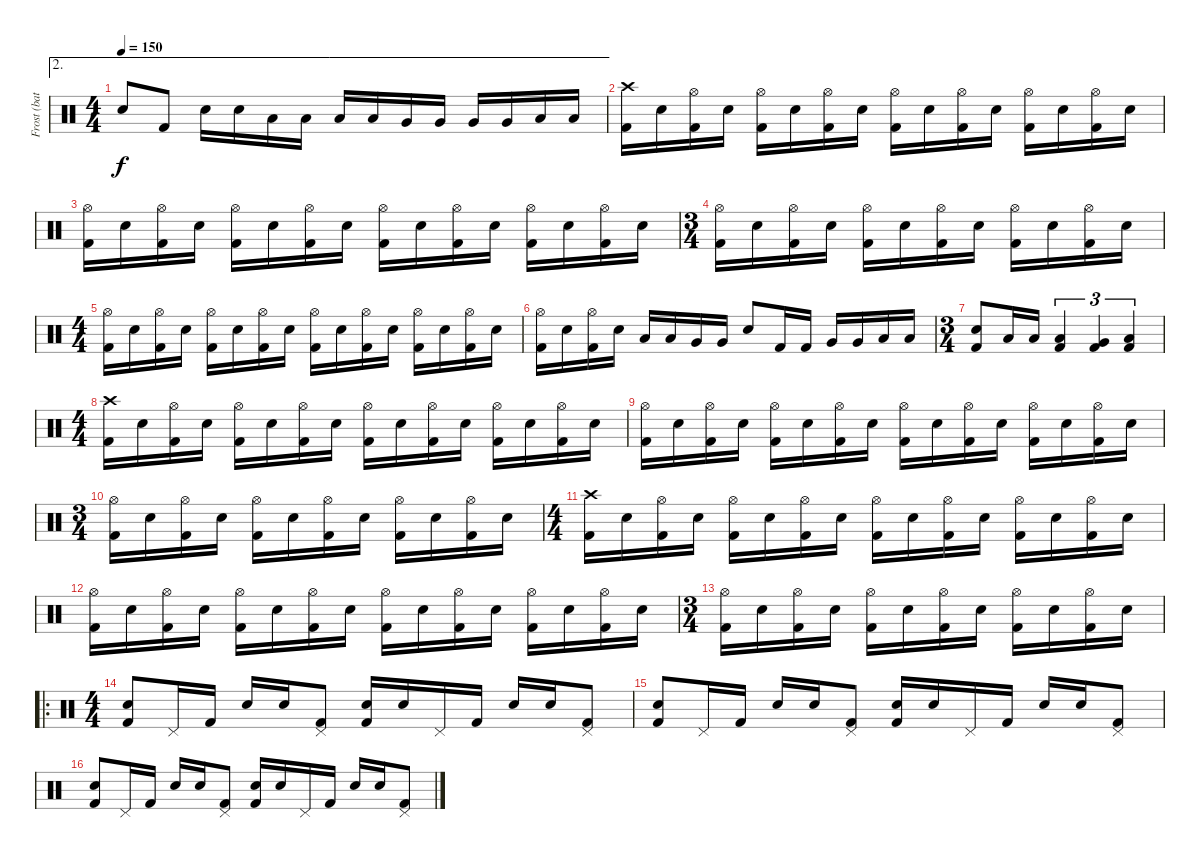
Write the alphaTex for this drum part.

\track ("Frost (battery)" "Frost (bat") {instrument percussion}
\staff {score}
\articulation defaults
\ae 2
\ts (4 4)
\tempo 150
\clef neutral
\ks c "Electric Snare (hit)".8{dy f} "Kick (hit) 2".8 "Electric Snare (hit)".16 "Electric Snare (hit)".16 "Low Tom (hit)".16 "Low Tom (hit)".16 "Low Tom (hit)".16 "Low Tom (hit)".16 "Very Low Tom (hit)".16 "Very Low Tom (hit)".16 "Very Low Tom (hit)".16 "Very Low Tom (hit)".16 "Low Floor Tom (hit)".16 "Low Floor Tom (hit)".16
|
("Crash high (hit)" "Kick (hit) 2").16 "Electric Snare (hit)".16 ("Hi-Hat (open)" "Kick (hit) 2").16 "Electric Snare (hit)".16 ("Hi-Hat (open)" "Kick (hit) 2").16 "Electric Snare (hit)".16 ("Hi-Hat (open)" "Kick (hit) 2").16 "Electric Snare (hit)".16 ("Hi-Hat (open)" "Kick (hit) 2").16 "Electric Snare (hit)".16 ("Hi-Hat (open)" "Kick (hit) 2").16 "Electric Snare (hit)".16 ("Hi-Hat (open)" "Kick (hit) 2").16 "Electric Snare (hit)".16 ("Hi-Hat (open)" "Kick (hit) 2").16 "Electric Snare (hit)".16 |
("Hi-Hat (open)" "Kick (hit) 2").16 "Electric Snare (hit)".16 ("Hi-Hat (open)" "Kick (hit) 2").16 "Electric Snare (hit)".16 ("Hi-Hat (open)" "Kick (hit) 2").16 "Electric Snare (hit)".16 ("Hi-Hat (open)" "Kick (hit) 2").16 "Electric Snare (hit)".16 ("Hi-Hat (open)" "Kick (hit) 2").16 "Electric Snare (hit)".16 ("Hi-Hat (open)" "Kick (hit) 2").16 "Electric Snare (hit)".16 ("Hi-Hat (open)" "Kick (hit) 2").16 "Electric Snare (hit)".16 ("Hi-Hat (open)" "Kick (hit) 2").16 "Electric Snare (hit)".16 |
\ts (3 4)
("Hi-Hat (open)" "Kick (hit) 2").16 "Electric Snare (hit)".16 ("Hi-Hat (open)" "Kick (hit) 2").16 "Electric Snare (hit)".16 ("Hi-Hat (open)" "Kick (hit) 2").16 "Electric Snare (hit)".16 ("Hi-Hat (open)" "Kick (hit) 2").16 "Electric Snare (hit)".16 ("Hi-Hat (open)" "Kick (hit) 2").16 "Electric Snare (hit)".16 ("Hi-Hat (open)" "Kick (hit) 2").16 "Electric Snare (hit)".16 |
\ts (4 4)
("Hi-Hat (open)" "Kick (hit) 2").16 "Electric Snare (hit)".16 ("Hi-Hat (open)" "Kick (hit) 2").16 "Electric Snare (hit)".16 ("Hi-Hat (open)" "Kick (hit) 2").16 "Electric Snare (hit)".16 ("Hi-Hat (open)" "Kick (hit) 2").16 "Electric Snare (hit)".16 ("Hi-Hat (open)" "Kick (hit) 2").16 "Electric Snare (hit)".16 ("Hi-Hat (open)" "Kick (hit) 2").16 "Electric Snare (hit)".16 ("Hi-Hat (open)" "Kick (hit) 2").16 "Electric Snare (hit)".16 ("Hi-Hat (open)" "Kick (hit) 2").16 "Electric Snare (hit)".16 |
("Hi-Hat (open)" "Kick (hit) 2").16 "Electric Snare (hit)".16 ("Hi-Hat (open)" "Kick (hit) 2").16 "Electric Snare (hit)".16 "Low Tom (hit)".16 "Low Tom (hit)".16 "Very Low Tom (hit)".16 "Very Low Tom (hit)".16 "Snare (hit) 2".8 "Kick (hit) 2".16 "Kick (hit) 2".16 "Very Low Tom (hit)".16 "Very Low Tom (hit)".16 "Low Floor Tom (hit)".16 "Low Floor Tom (hit)".16 |
\ts (3 4)
("Electric Snare (hit)" "Kick (hit) 2").8 "Low Tom (hit)".16 "Low Tom (hit)".16 ("Low Tom (hit)" "Kick (hit) 2").4{tu (3 2)} ("Very Low Tom (hit)" "Kick (hit) 2").4{tu (3 2)} ("Low Floor Tom (hit)" "Kick (hit) 2").4{tu (3 2)} |
\ts (4 4)
("Crash high (hit)" "Kick (hit) 2").16 "Electric Snare (hit)".16 ("Hi-Hat (open)" "Kick (hit) 2").16 "Electric Snare (hit)".16 ("Hi-Hat (open)" "Kick (hit) 2").16 "Electric Snare (hit)".16 ("Hi-Hat (open)" "Kick (hit) 2").16 "Electric Snare (hit)".16 ("Hi-Hat (open)" "Kick (hit) 2").16 "Electric Snare (hit)".16 ("Hi-Hat (open)" "Kick (hit) 2").16 "Electric Snare (hit)".16 ("Hi-Hat (open)" "Kick (hit) 2").16 "Electric Snare (hit)".16 ("Hi-Hat (open)" "Kick (hit) 2").16 "Electric Snare (hit)".16 |
("Hi-Hat (open)" "Kick (hit) 2").16 "Electric Snare (hit)".16 ("Hi-Hat (open)" "Kick (hit) 2").16 "Electric Snare (hit)".16 ("Hi-Hat (open)" "Kick (hit) 2").16 "Electric Snare (hit)".16 ("Hi-Hat (open)" "Kick (hit) 2").16 "Electric Snare (hit)".16 ("Hi-Hat (open)" "Kick (hit) 2").16 "Electric Snare (hit)".16 ("Hi-Hat (open)" "Kick (hit) 2").16 "Electric Snare (hit)".16 ("Hi-Hat (open)" "Kick (hit) 2").16 "Electric Snare (hit)".16 ("Hi-Hat (open)" "Kick (hit) 2").16 "Electric Snare (hit)".16 |
\ts (3 4)
("Hi-Hat (open)" "Kick (hit) 2").16 "Electric Snare (hit)".16 ("Hi-Hat (open)" "Kick (hit) 2").16 "Electric Snare (hit)".16 ("Hi-Hat (open)" "Kick (hit) 2").16 "Electric Snare (hit)".16 ("Hi-Hat (open)" "Kick (hit) 2").16 "Electric Snare (hit)".16 ("Hi-Hat (open)" "Kick (hit) 2").16 "Electric Snare (hit)".16 ("Hi-Hat (open)" "Kick (hit) 2").16 "Electric Snare (hit)".16 |
\ts (4 4)
("Crash high (hit)" "Kick (hit) 2").16 "Electric Snare (hit)".16 ("Hi-Hat (open)" "Kick (hit) 2").16 "Electric Snare (hit)".16 ("Hi-Hat (open)" "Kick (hit) 2").16 "Electric Snare (hit)".16 ("Hi-Hat (open)" "Kick (hit) 2").16 "Electric Snare (hit)".16 ("Hi-Hat (open)" "Kick (hit) 2").16 "Electric Snare (hit)".16 ("Hi-Hat (open)" "Kick (hit) 2").16 "Electric Snare (hit)".16 ("Hi-Hat (open)" "Kick (hit) 2").16 "Electric Snare (hit)".16 ("Hi-Hat (open)" "Kick (hit) 2").16 "Electric Snare (hit)".16 |
("Hi-Hat (open)" "Kick (hit) 2").16 "Electric Snare (hit)".16 ("Hi-Hat (open)" "Kick (hit) 2").16 "Electric Snare (hit)".16 ("Hi-Hat (open)" "Kick (hit) 2").16 "Electric Snare (hit)".16 ("Hi-Hat (open)" "Kick (hit) 2").16 "Electric Snare (hit)".16 ("Hi-Hat (open)" "Kick (hit) 2").16 "Electric Snare (hit)".16 ("Hi-Hat (open)" "Kick (hit) 2").16 "Electric Snare (hit)".16 ("Hi-Hat (open)" "Kick (hit) 2").16 "Electric Snare (hit)".16 ("Hi-Hat (open)" "Kick (hit) 2").16 "Electric Snare (hit)".16 |
\ts (3 4)
("Hi-Hat (open)" "Kick (hit) 2").16 "Electric Snare (hit)".16 ("Hi-Hat (open)" "Kick (hit) 2").16 "Electric Snare (hit)".16 ("Hi-Hat (open)" "Kick (hit) 2").16 "Electric Snare (hit)".16 ("Hi-Hat (open)" "Kick (hit) 2").16 "Electric Snare (hit)".16 ("Hi-Hat (open)" "Kick (hit) 2").16 "Electric Snare (hit)".16 ("Hi-Hat (open)" "Kick (hit) 2").16 "Electric Snare (hit)".16 |
\ro
\ts (4 4)
("Electric Snare (hit)" "Kick (hit) 2").8 "Pedal Hi-Hat (hit)".16 "Kick (hit) 2".16 "Electric Snare (hit)".16 "Electric Snare (hit)".16 ("Pedal Hi-Hat (hit)" "Kick (hit) 2").8 ("Electric Snare (hit)" "Kick (hit) 2").16 "Electric Snare (hit)".16 "Pedal Hi-Hat (hit)".16 "Kick (hit) 2".16 "Electric Snare (hit)".16 "Electric Snare (hit)".16 ("Pedal Hi-Hat (hit)" "Kick (hit) 2").8 |
("Electric Snare (hit)" "Kick (hit) 2").8 "Pedal Hi-Hat (hit)".16 "Kick (hit) 2".16 "Electric Snare (hit)".16 "Electric Snare (hit)".16 ("Pedal Hi-Hat (hit)" "Kick (hit) 2").8 ("Electric Snare (hit)" "Kick (hit) 2").16 "Electric Snare (hit)".16 "Pedal Hi-Hat (hit)".16 "Kick (hit) 2".16 "Electric Snare (hit)".16 "Electric Snare (hit)".16 ("Pedal Hi-Hat (hit)" "Kick (hit) 2").8 |
("Snare (hit) 2" "Kick (hit) 2").8 "Pedal Hi-Hat (hit)".16 "Kick (hit) 2".16 "Snare (hit) 2".16 "Snare (hit) 2".16 ("Pedal Hi-Hat (hit)" "Kick (hit) 2").8 ("Snare (hit) 2" "Kick (hit) 2").16 "Snare (hit) 2".16 "Pedal Hi-Hat (hit)".16 "Kick (hit) 2".16 "Snare (hit) 2".16 "Snare (hit) 2".16 ("Pedal Hi-Hat (hit)" "Kick (hit) 2").8
